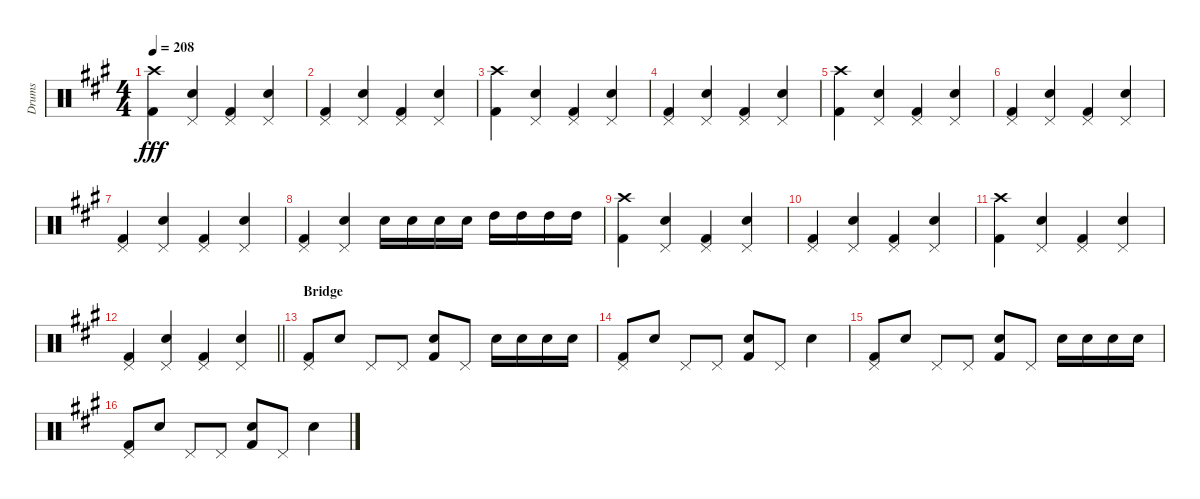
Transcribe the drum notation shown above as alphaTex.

\track ("Drums" "Drums") {instrument percussion}
\staff {score}
\articulation defaults
\ts (4 4)
\tempo 208
\clef neutral
\ks a
("Crash high (hit)" "Kick (hit) 2").4{dy fff} ("Pedal Hi-Hat (hit)" "Snare (hit) 2").4 ("Pedal Hi-Hat (hit)" "Kick (hit) 2").4 ("Pedal Hi-Hat (hit)" "Snare (hit) 2").4 |
("Pedal Hi-Hat (hit)" "Kick (hit) 2").4 ("Pedal Hi-Hat (hit)" "Snare (hit) 2").4 ("Pedal Hi-Hat (hit)" "Kick (hit) 2").4 ("Pedal Hi-Hat (hit)" "Snare (hit) 2").4 |
("Crash high (hit)" "Kick (hit) 2").4 ("Pedal Hi-Hat (hit)" "Snare (hit) 2").4 ("Pedal Hi-Hat (hit)" "Kick (hit) 2").4 ("Pedal Hi-Hat (hit)" "Snare (hit) 2").4 |
("Pedal Hi-Hat (hit)" "Kick (hit) 2").4 ("Pedal Hi-Hat (hit)" "Snare (hit) 2").4 ("Pedal Hi-Hat (hit)" "Kick (hit) 2").4 ("Pedal Hi-Hat (hit)" "Snare (hit) 2").4 |
("Crash high (hit)" "Kick (hit) 2").4 ("Pedal Hi-Hat (hit)" "Snare (hit) 2").4 ("Pedal Hi-Hat (hit)" "Kick (hit) 2").4 ("Pedal Hi-Hat (hit)" "Snare (hit) 2").4 |
("Pedal Hi-Hat (hit)" "Kick (hit) 2").4 ("Pedal Hi-Hat (hit)" "Snare (hit) 2").4 ("Pedal Hi-Hat (hit)" "Kick (hit) 2").4 ("Pedal Hi-Hat (hit)" "Snare (hit) 2").4 |
("Pedal Hi-Hat (hit)" "Kick (hit) 2").4 ("Pedal Hi-Hat (hit)" "Snare (hit) 2").4 ("Pedal Hi-Hat (hit)" "Kick (hit) 2").4 ("Pedal Hi-Hat (hit)" "Snare (hit) 2").4 |
("Pedal Hi-Hat (hit)" "Kick (hit) 2").4 ("Pedal Hi-Hat (hit)" "Snare (hit) 2").4 "Snare (hit) 2".16 "Snare (hit) 2".16 "Snare (hit) 2".16 "Snare (hit) 2".16 "High Tom (hit)".16 "High Tom (hit)".16 "High Tom (hit)".16 "High Tom (hit)".16 |
("Crash high (hit)" "Kick (hit) 2").4 ("Pedal Hi-Hat (hit)" "Snare (hit) 2").4 ("Pedal Hi-Hat (hit)" "Kick (hit) 2").4 ("Pedal Hi-Hat (hit)" "Snare (hit) 2").4 |
("Pedal Hi-Hat (hit)" "Kick (hit) 2").4 ("Pedal Hi-Hat (hit)" "Snare (hit) 2").4 ("Pedal Hi-Hat (hit)" "Kick (hit) 2").4 ("Pedal Hi-Hat (hit)" "Snare (hit) 2").4 |
("Crash high (hit)" "Kick (hit) 2").4 ("Pedal Hi-Hat (hit)" "Snare (hit) 2").4 ("Pedal Hi-Hat (hit)" "Kick (hit) 2").4 ("Pedal Hi-Hat (hit)" "Snare (hit) 2").4 |
\barLineRight lightlight
("Pedal Hi-Hat (hit)" "Kick (hit) 2").4 ("Pedal Hi-Hat (hit)" "Snare (hit) 2").4 ("Pedal Hi-Hat (hit)" "Kick (hit) 2").4 ("Pedal Hi-Hat (hit)" "Snare (hit) 2").4 |
\section ("" "Bridge")
("Pedal Hi-Hat (hit)" "Kick (hit) 2").8 "Snare (hit) 2".8 "Pedal Hi-Hat (hit)".8 "Pedal Hi-Hat (hit)".8 ("Snare (hit) 2" "Kick (hit) 2").8 "Pedal Hi-Hat (hit)".8 "Snare (hit) 2".16 "Snare (hit) 2".16 "Snare (hit) 2".16 "Snare (hit) 2".16 |
("Pedal Hi-Hat (hit)" "Kick (hit) 2").8 "Snare (hit) 2".8 "Pedal Hi-Hat (hit)".8 "Pedal Hi-Hat (hit)".8 ("Snare (hit) 2" "Kick (hit) 2").8 "Pedal Hi-Hat (hit)".8 "Snare (hit) 2".4 |
("Pedal Hi-Hat (hit)" "Kick (hit) 2").8 "Snare (hit) 2".8 "Pedal Hi-Hat (hit)".8 "Pedal Hi-Hat (hit)".8 ("Snare (hit) 2" "Kick (hit) 2").8 "Pedal Hi-Hat (hit)".8 "Snare (hit) 2".16 "Snare (hit) 2".16 "Snare (hit) 2".16 "Snare (hit) 2".16 |
("Pedal Hi-Hat (hit)" "Kick (hit) 2").8 "Snare (hit) 2".8 "Pedal Hi-Hat (hit)".8 "Pedal Hi-Hat (hit)".8 ("Snare (hit) 2" "Kick (hit) 2").8 "Pedal Hi-Hat (hit)".8 "Snare (hit) 2".4
